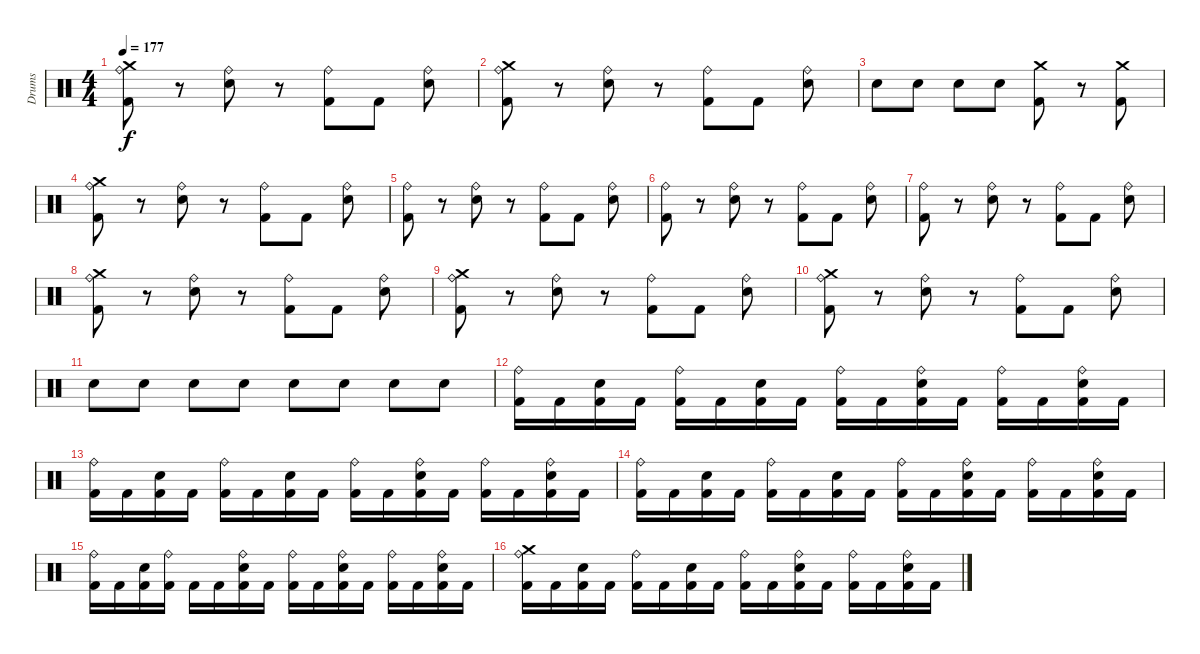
\track ("Drums" "Drums") {instrument percussion}
\staff {score}
\articulation defaults
\ts (4 4)
\tempo 177
\clef neutral
\ks c
("Ride (bell)" "Crash medium (hit)" "Kick (hit) 2").8{dy f} r.8 ("Ride (bell)" "Snare (hit) 2").8 r.8 ("Ride (bell)" "Kick (hit) 2").8 "Kick (hit) 2".8 ("Ride (bell)" "Snare (hit) 2").8 |
("Ride (bell)" "Crash medium (hit)" "Kick (hit) 2").8 r.8 ("Ride (bell)" "Snare (hit) 2").8 r.8 ("Ride (bell)" "Kick (hit) 2").8 "Kick (hit) 2".8 ("Ride (bell)" "Snare (hit) 2").8 |
"Snare (hit) 2".8 "Snare (hit) 2".8 "Snare (hit) 2".8 "Snare (hit) 2".8 ("Crash medium (hit)" "Kick (hit) 2").8 r.8 ("Crash medium (hit)" "Kick (hit) 2").8 |
("Ride (bell)" "Crash medium (hit)" "Kick (hit) 2").8 r.8 ("Ride (bell)" "Snare (hit) 2").8 r.8 ("Ride (bell)" "Kick (hit) 2").8 "Kick (hit) 2".8 ("Ride (bell)" "Snare (hit) 2").8 |
("Ride (bell)" "Kick (hit) 2").8 r.8 ("Ride (bell)" "Snare (hit) 2").8 r.8 ("Ride (bell)" "Kick (hit) 2").8 "Kick (hit) 2".8 ("Ride (bell)" "Snare (hit) 2").8 |
("Ride (bell)" "Kick (hit) 2").8 r.8 ("Ride (bell)" "Snare (hit) 2").8 r.8 ("Ride (bell)" "Kick (hit) 2").8 "Kick (hit) 2".8 ("Ride (bell)" "Snare (hit) 2").8 |
("Ride (bell)" "Kick (hit) 2").8 r.8 ("Ride (bell)" "Snare (hit) 2").8 r.8 ("Ride (bell)" "Kick (hit) 2").8 "Kick (hit) 2".8 ("Ride (bell)" "Snare (hit) 2").8 |
("Ride (bell)" "Crash medium (hit)" "Kick (hit) 2").8 r.8 ("Ride (bell)" "Snare (hit) 2").8 r.8 ("Ride (bell)" "Kick (hit) 2").8 "Kick (hit) 2".8 ("Ride (bell)" "Snare (hit) 2").8 |
("Ride (bell)" "Crash medium (hit)" "Kick (hit) 2").8 r.8 ("Ride (bell)" "Snare (hit) 2").8 r.8 ("Ride (bell)" "Kick (hit) 2").8 "Kick (hit) 2".8 ("Ride (bell)" "Snare (hit) 2").8 |
("Ride (bell)" "Crash medium (hit)" "Kick (hit) 2").8 r.8 ("Ride (bell)" "Snare (hit) 2").8 r.8 ("Ride (bell)" "Kick (hit) 2").8 "Kick (hit) 2".8 ("Ride (bell)" "Snare (hit) 2").8 |
"Snare (hit) 2".8 "Snare (hit) 2".8 "Snare (hit) 2".8 "Snare (hit) 2".8 "Snare (hit) 2".8 "Snare (hit) 2".8 "Snare (hit) 2".8 "Snare (hit) 2".8 |
("Ride (bell)" "Kick (hit) 2").16 "Kick (hit) 2".16 ("Snare (hit) 2" "Kick (hit) 2").16 "Kick (hit) 2".16 ("Ride (bell)" "Kick (hit) 2").16 "Kick (hit) 2".16 ("Snare (hit) 2" "Kick (hit) 2").16 "Kick (hit) 2".16 ("Ride (bell)" "Kick (hit) 2").16 "Kick (hit) 2".16 ("Ride (bell)" "Snare (hit) 2" "Kick (hit) 2").16 "Kick (hit) 2".16 ("Ride (bell)" "Kick (hit) 2").16 "Kick (hit) 2".16 ("Ride (bell)" "Snare (hit) 2" "Kick (hit) 2").16 "Kick (hit) 2".16 |
("Ride (bell)" "Kick (hit) 2").16 "Kick (hit) 2".16 ("Snare (hit) 2" "Kick (hit) 2").16 "Kick (hit) 2".16 ("Ride (bell)" "Kick (hit) 2").16 "Kick (hit) 2".16 ("Snare (hit) 2" "Kick (hit) 2").16 "Kick (hit) 2".16 ("Ride (bell)" "Kick (hit) 2").16 "Kick (hit) 2".16 ("Ride (bell)" "Snare (hit) 2" "Kick (hit) 2").16 "Kick (hit) 2".16 ("Ride (bell)" "Kick (hit) 2").16 "Kick (hit) 2".16 ("Ride (bell)" "Snare (hit) 2" "Kick (hit) 2").16 "Kick (hit) 2".16 |
("Ride (bell)" "Kick (hit) 2").16 "Kick (hit) 2".16 ("Snare (hit) 2" "Kick (hit) 2").16 "Kick (hit) 2".16 ("Ride (bell)" "Kick (hit) 2").16 "Kick (hit) 2".16 ("Snare (hit) 2" "Kick (hit) 2").16 "Kick (hit) 2".16 ("Ride (bell)" "Kick (hit) 2").16 "Kick (hit) 2".16 ("Ride (bell)" "Snare (hit) 2" "Kick (hit) 2").16 "Kick (hit) 2".16 ("Ride (bell)" "Kick (hit) 2").16 "Kick (hit) 2".16 ("Ride (bell)" "Snare (hit) 2" "Kick (hit) 2").16 "Kick (hit) 2".16 |
("Ride (bell)" "Kick (hit) 2").16 "Kick (hit) 2".16 ("Snare (hit) 2" "Kick (hit) 2").16 ("Ride (bell)" "Kick (hit) 2").16 "Kick (hit) 2".16 "Kick (hit) 2".16 ("Ride (bell)" "Snare (hit) 2" "Kick (hit) 2").16 "Kick (hit) 2".16 ("Ride (bell)" "Kick (hit) 2").16 "Kick (hit) 2".16 ("Ride (bell)" "Snare (hit) 2" "Kick (hit) 2").16 "Kick (hit) 2".16 ("Ride (bell)" "Kick (hit) 2").16 "Kick (hit) 2".16 ("Ride (bell)" "Snare (hit) 2" "Kick (hit) 2").16 "Kick (hit) 2".16 |
("Ride (bell)" "Crash medium (hit)" "Kick (hit) 2").16 "Kick (hit) 2".16 ("Snare (hit) 2" "Kick (hit) 2").16 "Kick (hit) 2".16 ("Ride (bell)" "Kick (hit) 2").16 "Kick (hit) 2".16 ("Snare (hit) 2" "Kick (hit) 2").16 "Kick (hit) 2".16 ("Ride (bell)" "Kick (hit) 2").16 "Kick (hit) 2".16 ("Ride (bell)" "Snare (hit) 2" "Kick (hit) 2").16 "Kick (hit) 2".16 ("Ride (bell)" "Kick (hit) 2").16 "Kick (hit) 2".16 ("Ride (bell)" "Snare (hit) 2" "Kick (hit) 2").16 "Kick (hit) 2".16
